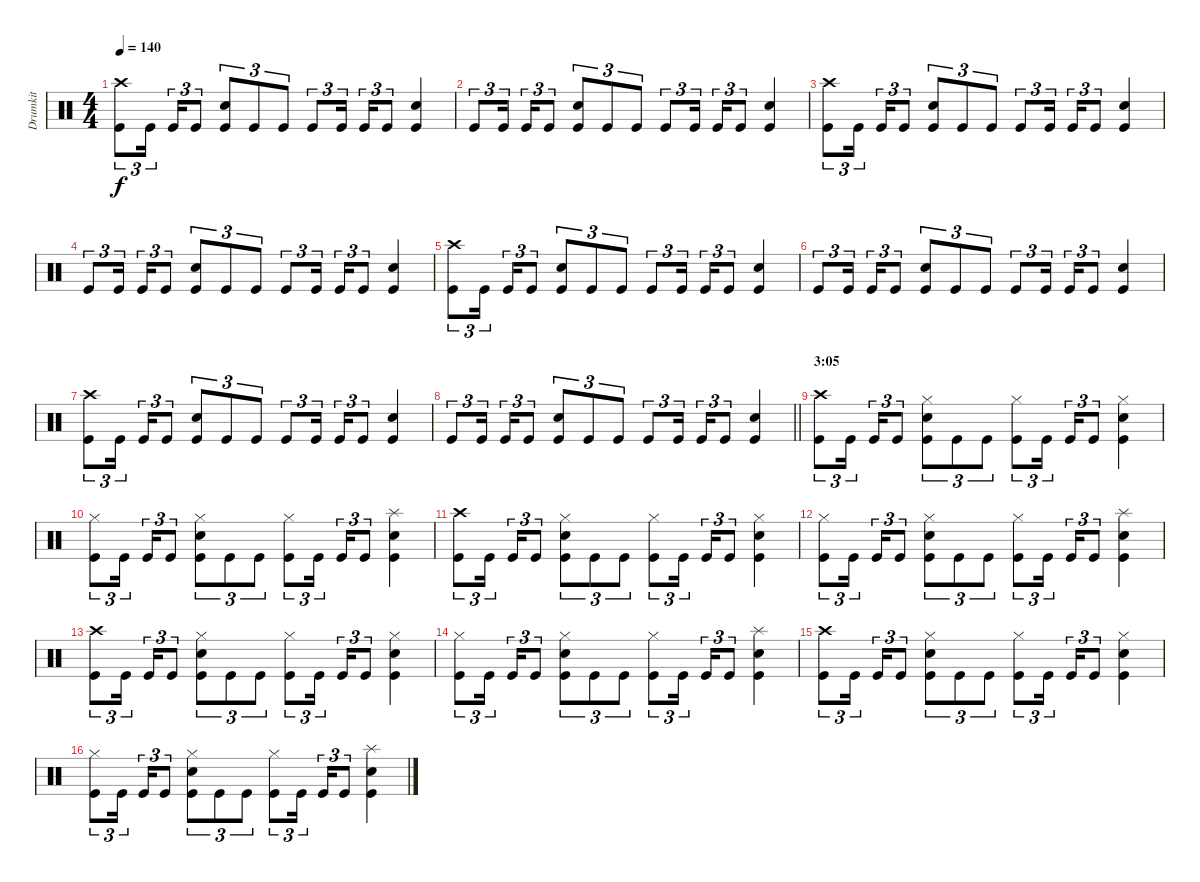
\track ("Drumkit" "Drumkit") {instrument percussion}
\staff {score}
\articulation defaults
\ts (4 4)
\tempo 140
\clef neutral
\ks c
("Crash high (hit)" "Kick (hit)").8{tu (3 2) dy f} "Kick (hit)".16{tu (3 2) beam splitsecondary} "Kick (hit)".16{tu (3 2)} "Kick (hit)".8{tu (3 2)} ("Snare (hit) 2" "Kick (hit)").8{tu (3 2)} "Kick (hit)".8{tu (3 2)} "Kick (hit)".8{tu (3 2)} "Kick (hit)".8{tu (3 2)} "Kick (hit)".16{tu (3 2) beam splitsecondary} "Kick (hit)".16{tu (3 2)} "Kick (hit)".8{tu (3 2)} ("Snare (hit) 2" "Kick (hit)").4 |
"Kick (hit)".8{tu (3 2)} "Kick (hit)".16{tu (3 2) beam splitsecondary} "Kick (hit)".16{tu (3 2)} "Kick (hit)".8{tu (3 2)} ("Snare (hit) 2" "Kick (hit)").8{tu (3 2)} "Kick (hit)".8{tu (3 2)} "Kick (hit)".8{tu (3 2)} "Kick (hit)".8{tu (3 2)} "Kick (hit)".16{tu (3 2) beam splitsecondary} "Kick (hit)".16{tu (3 2)} "Kick (hit)".8{tu (3 2)} ("Snare (hit) 2" "Kick (hit)").4 |
("Crash high (hit)" "Kick (hit)").8{tu (3 2)} "Kick (hit)".16{tu (3 2) beam splitsecondary} "Kick (hit)".16{tu (3 2)} "Kick (hit)".8{tu (3 2)} ("Snare (hit) 2" "Kick (hit)").8{tu (3 2)} "Kick (hit)".8{tu (3 2)} "Kick (hit)".8{tu (3 2)} "Kick (hit)".8{tu (3 2)} "Kick (hit)".16{tu (3 2) beam splitsecondary} "Kick (hit)".16{tu (3 2)} "Kick (hit)".8{tu (3 2)} ("Snare (hit) 2" "Kick (hit)").4 |
"Kick (hit)".8{tu (3 2)} "Kick (hit)".16{tu (3 2) beam splitsecondary} "Kick (hit)".16{tu (3 2)} "Kick (hit)".8{tu (3 2)} ("Snare (hit) 2" "Kick (hit)").8{tu (3 2)} "Kick (hit)".8{tu (3 2)} "Kick (hit)".8{tu (3 2)} "Kick (hit)".8{tu (3 2)} "Kick (hit)".16{tu (3 2) beam splitsecondary} "Kick (hit)".16{tu (3 2)} "Kick (hit)".8{tu (3 2)} ("Snare (hit) 2" "Kick (hit)").4 |
("Crash high (hit)" "Kick (hit)").8{tu (3 2)} "Kick (hit)".16{tu (3 2) beam splitsecondary} "Kick (hit)".16{tu (3 2)} "Kick (hit)".8{tu (3 2)} ("Snare (hit) 2" "Kick (hit)").8{tu (3 2)} "Kick (hit)".8{tu (3 2)} "Kick (hit)".8{tu (3 2)} "Kick (hit)".8{tu (3 2)} "Kick (hit)".16{tu (3 2) beam splitsecondary} "Kick (hit)".16{tu (3 2)} "Kick (hit)".8{tu (3 2)} ("Snare (hit) 2" "Kick (hit)").4 |
"Kick (hit)".8{tu (3 2)} "Kick (hit)".16{tu (3 2) beam splitsecondary} "Kick (hit)".16{tu (3 2)} "Kick (hit)".8{tu (3 2)} ("Snare (hit) 2" "Kick (hit)").8{tu (3 2)} "Kick (hit)".8{tu (3 2)} "Kick (hit)".8{tu (3 2)} "Kick (hit)".8{tu (3 2)} "Kick (hit)".16{tu (3 2) beam splitsecondary} "Kick (hit)".16{tu (3 2)} "Kick (hit)".8{tu (3 2)} ("Snare (hit) 2" "Kick (hit)").4 |
("Crash high (hit)" "Kick (hit)").8{tu (3 2)} "Kick (hit)".16{tu (3 2) beam splitsecondary} "Kick (hit)".16{tu (3 2)} "Kick (hit)".8{tu (3 2)} ("Snare (hit) 2" "Kick (hit)").8{tu (3 2)} "Kick (hit)".8{tu (3 2)} "Kick (hit)".8{tu (3 2)} "Kick (hit)".8{tu (3 2)} "Kick (hit)".16{tu (3 2) beam splitsecondary} "Kick (hit)".16{tu (3 2)} "Kick (hit)".8{tu (3 2)} ("Snare (hit) 2" "Kick (hit)").4 |
\barLineRight lightlight "Kick (hit)".8{tu (3 2)} "Kick (hit)".16{tu (3 2) beam splitsecondary} "Kick (hit)".16{tu (3 2)} "Kick (hit)".8{tu (3 2)}
("Snare (hit) 2" "Kick (hit)").8{tu (3 2)} "Kick (hit)".8{tu (3 2)} "Kick (hit)".8{tu (3 2)} "Kick (hit)".8{tu (3 2)} "Kick (hit)".16{tu (3 2) beam splitsecondary} "Kick (hit)".16{tu (3 2)} "Kick (hit)".8{tu (3 2)} ("Snare (hit) 2" "Kick (hit)").4 |
\section ("" "3:05")
("Crash high (hit)" "Kick (hit)").8{tu (3 2)} "Kick (hit)".16{tu (3 2) beam splitsecondary} "Kick (hit)".16{tu (3 2)} "Kick (hit)".8{tu (3 2)} ("Hi-Hat (closed)" "Snare (hit) 2" "Kick (hit)").8{tu (3 2)} "Kick (hit)".8{tu (3 2)} "Kick (hit)".8{tu (3 2)} ("Hi-Hat (closed)" "Kick (hit)").8{tu (3 2)} "Kick (hit)".16{tu (3 2) beam splitsecondary} "Kick (hit)".16{tu (3 2)} "Kick (hit)".8{tu (3 2)} ("Hi-Hat (closed)" "Snare (hit) 2" "Kick (hit)").4 |
("Hi-Hat (closed)" "Kick (hit)").8{tu (3 2)} "Kick (hit)".16{tu (3 2) beam splitsecondary} "Kick (hit)".16{tu (3 2)} "Kick (hit)".8{tu (3 2)} ("Hi-Hat (closed)" "Snare (hit) 2" "Kick (hit)").8{tu (3 2)} "Kick (hit)".8{tu (3 2)} "Kick (hit)".8{tu (3 2)} ("Hi-Hat (closed)" "Kick (hit)").8{tu (3 2)} "Kick (hit)".16{tu (3 2) beam splitsecondary} "Kick (hit)".16{tu (3 2)} "Kick (hit)".8{tu (3 2)} ("Splash (hit)" "Snare (hit) 2" "Kick (hit)").4 |
("Crash high (hit)" "Kick (hit)").8{tu (3 2)} "Kick (hit)".16{tu (3 2) beam splitsecondary} "Kick (hit)".16{tu (3 2)} "Kick (hit)".8{tu (3 2)} ("Hi-Hat (closed)" "Snare (hit) 2" "Kick (hit)").8{tu (3 2)} "Kick (hit)".8{tu (3 2)} "Kick (hit)".8{tu (3 2)} ("Hi-Hat (closed)" "Kick (hit)").8{tu (3 2)} "Kick (hit)".16{tu (3 2) beam splitsecondary} "Kick (hit)".16{tu (3 2)} "Kick (hit)".8{tu (3 2)} ("Hi-Hat (closed)" "Snare (hit) 2" "Kick (hit)").4 |
("Hi-Hat (closed)" "Kick (hit)").8{tu (3 2)} "Kick (hit)".16{tu (3 2) beam splitsecondary} "Kick (hit)".16{tu (3 2)} "Kick (hit)".8{tu (3 2)} ("Hi-Hat (closed)" "Snare (hit) 2" "Kick (hit)").8{tu (3 2)} "Kick (hit)".8{tu (3 2)} "Kick (hit)".8{tu (3 2)} ("Hi-Hat (closed)" "Kick (hit)").8{tu (3 2)} "Kick (hit)".16{tu (3 2) beam splitsecondary} "Kick (hit)".16{tu (3 2)} "Kick (hit)".8{tu (3 2)} ("Splash (hit)" "Snare (hit) 2" "Kick (hit)").4 |
("Crash high (hit)" "Kick (hit)").8{tu (3 2)} "Kick (hit)".16{tu (3 2) beam splitsecondary} "Kick (hit)".16{tu (3 2)} "Kick (hit)".8{tu (3 2)} ("Hi-Hat (closed)" "Snare (hit) 2" "Kick (hit)").8{tu (3 2)} "Kick (hit)".8{tu (3 2)} "Kick (hit)".8{tu (3 2)} ("Hi-Hat (closed)" "Kick (hit)").8{tu (3 2)} "Kick (hit)".16{tu (3 2) beam splitsecondary} "Kick (hit)".16{tu (3 2)} "Kick (hit)".8{tu (3 2)} ("Hi-Hat (closed)" "Snare (hit) 2" "Kick (hit)").4 |
("Hi-Hat (closed)" "Kick (hit)").8{tu (3 2)} "Kick (hit)".16{tu (3 2) beam splitsecondary} "Kick (hit)".16{tu (3 2)} "Kick (hit)".8{tu (3 2)} ("Hi-Hat (closed)" "Snare (hit) 2" "Kick (hit)").8{tu (3 2)} "Kick (hit)".8{tu (3 2)} "Kick (hit)".8{tu (3 2)} ("Hi-Hat (closed)" "Kick (hit)").8{tu (3 2)} "Kick (hit)".16{tu (3 2) beam splitsecondary} "Kick (hit)".16{tu (3 2)} "Kick (hit)".8{tu (3 2)} ("Splash (hit)" "Snare (hit) 2" "Kick (hit)").4 |
("Crash high (hit)" "Kick (hit)").8{tu (3 2)} "Kick (hit)".16{tu (3 2) beam splitsecondary} "Kick (hit)".16{tu (3 2)} "Kick (hit)".8{tu (3 2)} ("Hi-Hat (closed)" "Snare (hit) 2" "Kick (hit)").8{tu (3 2)} "Kick (hit)".8{tu (3 2)} "Kick (hit)".8{tu (3 2)} ("Hi-Hat (closed)" "Kick (hit)").8{tu (3 2)} "Kick (hit)".16{tu (3 2) beam splitsecondary} "Kick (hit)".16{tu (3 2)} "Kick (hit)".8{tu (3 2)} ("Hi-Hat (closed)" "Snare (hit) 2" "Kick (hit)").4 |
("Hi-Hat (closed)" "Kick (hit)").8{tu (3 2)} "Kick (hit)".16{tu (3 2) beam splitsecondary} "Kick (hit)".16{tu (3 2)} "Kick (hit)".8{tu (3 2)} ("Hi-Hat (closed)" "Snare (hit) 2" "Kick (hit)").8{tu (3 2)} "Kick (hit)".8{tu (3 2)} "Kick (hit)".8{tu (3 2)} ("Hi-Hat (closed)" "Kick (hit)").8{tu (3 2)} "Kick (hit)".16{tu (3 2) beam splitsecondary} "Kick (hit)".16{tu (3 2)} "Kick (hit)".8{tu (3 2)} ("Splash (hit)" "Snare (hit) 2" "Kick (hit)").4
